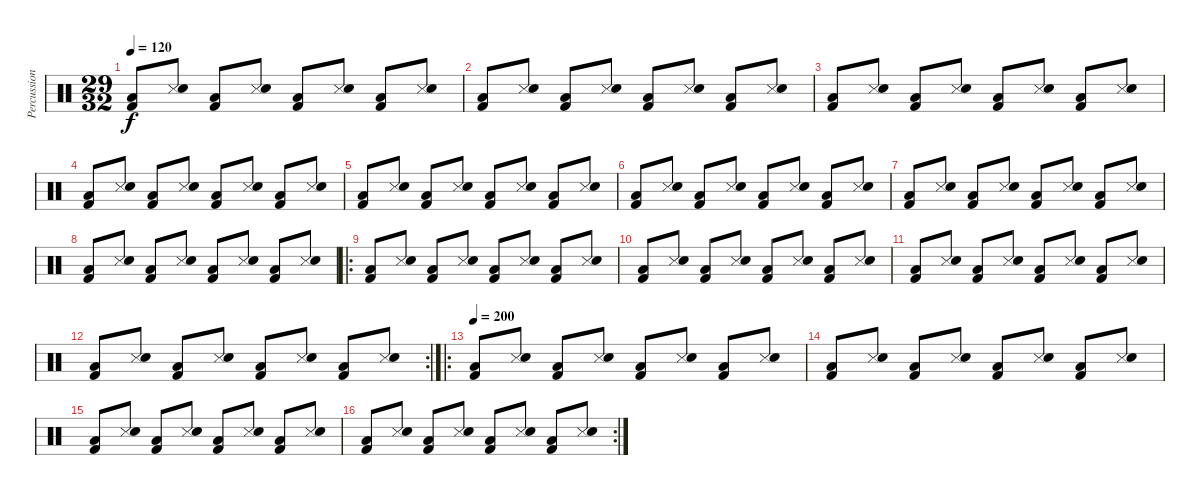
\track ("Percussion" "Percussion") {instrument percussion}
\staff {score}
\articulation defaults
\ts (29 32)
\tempo 120
\clef neutral
\ks c
("Low Tom (hit)" "Kick (hit) 2").8{dy f} ("Snare (side stick) 3" "Electric Snare (hit)").8 ("Low Tom (hit)" "Kick (hit) 2").8 ("Snare (side stick) 3" "Electric Snare (hit)").8 ("Low Tom (hit)" "Kick (hit) 2").8 ("Snare (side stick) 3" "Electric Snare (hit)").8 ("Low Tom (hit)" "Kick (hit) 2").8 ("Snare (side stick) 3" "Electric Snare (hit)").8 |
("Low Tom (hit)" "Kick (hit) 2").8 ("Snare (side stick) 3" "Electric Snare (hit)").8 ("Low Tom (hit)" "Kick (hit) 2").8 ("Snare (side stick) 3" "Electric Snare (hit)").8 ("Low Tom (hit)" "Kick (hit) 2").8 ("Snare (side stick) 3" "Electric Snare (hit)").8 ("Low Tom (hit)" "Kick (hit) 2").8 ("Snare (side stick) 3" "Electric Snare (hit)").8 |
("Low Tom (hit)" "Kick (hit) 2").8 ("Snare (side stick) 3" "Electric Snare (hit)").8 ("Low Tom (hit)" "Kick (hit) 2").8 ("Snare (side stick) 3" "Electric Snare (hit)").8 ("Low Tom (hit)" "Kick (hit) 2").8 ("Snare (side stick) 3" "Electric Snare (hit)").8 ("Low Tom (hit)" "Kick (hit) 2").8 ("Snare (side stick) 3" "Electric Snare (hit)").8 |
("Low Tom (hit)" "Kick (hit) 2").8 ("Snare (side stick) 3" "Electric Snare (hit)").8 ("Low Tom (hit)" "Kick (hit) 2").8 ("Snare (side stick) 3" "Electric Snare (hit)").8 ("Low Tom (hit)" "Kick (hit) 2").8 ("Snare (side stick) 3" "Electric Snare (hit)").8 ("Low Tom (hit)" "Kick (hit) 2").8 ("Snare (side stick) 3" "Electric Snare (hit)").8 |
("Low Tom (hit)" "Kick (hit) 2").8 ("Snare (side stick) 3" "Electric Snare (hit)").8 ("Low Tom (hit)" "Kick (hit) 2").8 ("Snare (side stick) 3" "Electric Snare (hit)").8 ("Low Tom (hit)" "Kick (hit) 2").8 ("Snare (side stick) 3" "Electric Snare (hit)").8 ("Low Tom (hit)" "Kick (hit) 2").8 ("Snare (side stick) 3" "Electric Snare (hit)").8 |
("Low Tom (hit)" "Kick (hit) 2").8 ("Snare (side stick) 3" "Electric Snare (hit)").8 ("Low Tom (hit)" "Kick (hit) 2").8 ("Snare (side stick) 3" "Electric Snare (hit)").8 ("Low Tom (hit)" "Kick (hit) 2").8 ("Snare (side stick) 3" "Electric Snare (hit)").8 ("Low Tom (hit)" "Kick (hit) 2").8 ("Snare (side stick) 3" "Electric Snare (hit)").8 |
("Low Tom (hit)" "Kick (hit) 2").8 ("Snare (side stick) 3" "Electric Snare (hit)").8 ("Low Tom (hit)" "Kick (hit) 2").8 ("Snare (side stick) 3" "Electric Snare (hit)").8 ("Low Tom (hit)" "Kick (hit) 2").8 ("Snare (side stick) 3" "Electric Snare (hit)").8 ("Low Tom (hit)" "Kick (hit) 2").8 ("Snare (side stick) 3" "Electric Snare (hit)").8 |
("Low Tom (hit)" "Kick (hit) 2").8 ("Snare (side stick) 3" "Electric Snare (hit)").8 ("Low Tom (hit)" "Kick (hit) 2").8 ("Snare (side stick) 3" "Electric Snare (hit)").8 ("Low Tom (hit)" "Kick (hit) 2").8 ("Snare (side stick) 3" "Electric Snare (hit)").8 ("Low Tom (hit)" "Kick (hit) 2").8 ("Snare (side stick) 3" "Electric Snare (hit)").8 |
\ro
("Low Tom (hit)" "Kick (hit) 2").8 ("Snare (side stick) 3" "Electric Snare (hit)").8 ("Low Tom (hit)" "Kick (hit) 2").8 ("Snare (side stick) 3" "Electric Snare (hit)").8 ("Low Tom (hit)" "Kick (hit) 2").8 ("Snare (side stick) 3" "Electric Snare (hit)").8 ("Low Tom (hit)" "Kick (hit) 2").8 ("Snare (side stick) 3" "Electric Snare (hit)").8 |
("Low Tom (hit)" "Kick (hit) 2").8 ("Snare (side stick) 3" "Electric Snare (hit)").8 ("Low Tom (hit)" "Kick (hit) 2").8 ("Snare (side stick) 3" "Electric Snare (hit)").8 ("Low Tom (hit)" "Kick (hit) 2").8 ("Snare (side stick) 3" "Electric Snare (hit)").8 ("Low Tom (hit)" "Kick (hit) 2").8 ("Snare (side stick) 3" "Electric Snare (hit)").8 |
("Low Tom (hit)" "Kick (hit) 2").8 ("Snare (side stick) 3" "Electric Snare (hit)").8 ("Low Tom (hit)" "Kick (hit) 2").8 ("Snare (side stick) 3" "Electric Snare (hit)").8 ("Low Tom (hit)" "Kick (hit) 2").8 ("Snare (side stick) 3" "Electric Snare (hit)").8 ("Low Tom (hit)" "Kick (hit) 2").8 ("Snare (side stick) 3" "Electric Snare (hit)").8 |
\rc 2
("Low Tom (hit)" "Kick (hit) 2").8 ("Snare (side stick) 3" "Electric Snare (hit)").8 ("Low Tom (hit)" "Kick (hit) 2").8 ("Snare (side stick) 3" "Electric Snare (hit)").8 ("Low Tom (hit)" "Kick (hit) 2").8 ("Snare (side stick) 3" "Electric Snare (hit)").8 ("Low Tom (hit)" "Kick (hit) 2").8 ("Snare (side stick) 3" "Electric Snare (hit)").8 |
\ro
\tempo 200
("Low Tom (hit)" "Kick (hit) 2").8 ("Snare (side stick) 3" "Electric Snare (hit)").8 ("Low Tom (hit)" "Kick (hit) 2").8 ("Snare (side stick) 3" "Electric Snare (hit)").8 ("Low Tom (hit)" "Kick (hit) 2").8 ("Snare (side stick) 3" "Electric Snare (hit)").8 ("Low Tom (hit)" "Kick (hit) 2").8 ("Snare (side stick) 3" "Electric Snare (hit)").8 |
("Low Tom (hit)" "Kick (hit) 2").8 ("Snare (side stick) 3" "Electric Snare (hit)").8 ("Low Tom (hit)" "Kick (hit) 2").8 ("Snare (side stick) 3" "Electric Snare (hit)").8 ("Low Tom (hit)" "Kick (hit) 2").8 ("Snare (side stick) 3" "Electric Snare (hit)").8 ("Low Tom (hit)" "Kick (hit) 2").8 ("Snare (side stick) 3" "Electric Snare (hit)").8 |
("Low Tom (hit)" "Kick (hit) 2").8 ("Snare (side stick) 3" "Electric Snare (hit)").8 ("Low Tom (hit)" "Kick (hit) 2").8 ("Snare (side stick) 3" "Electric Snare (hit)").8 ("Low Tom (hit)" "Kick (hit) 2").8 ("Snare (side stick) 3" "Electric Snare (hit)").8 ("Low Tom (hit)" "Kick (hit) 2").8 ("Snare (side stick) 3" "Electric Snare (hit)").8 |
\rc 2
("Low Tom (hit)" "Kick (hit) 2").8 ("Snare (side stick) 3" "Electric Snare (hit)").8 ("Low Tom (hit)" "Kick (hit) 2").8 ("Snare (side stick) 3" "Electric Snare (hit)").8 ("Low Tom (hit)" "Kick (hit) 2").8 ("Snare (side stick) 3" "Electric Snare (hit)").8 ("Low Tom (hit)" "Kick (hit) 2").8 ("Snare (side stick) 3" "Electric Snare (hit)").8
